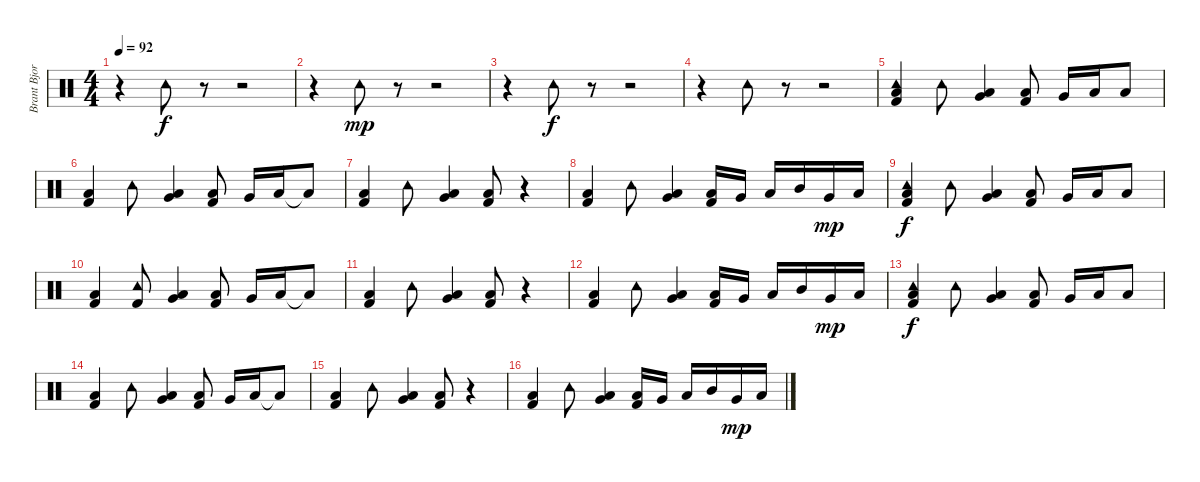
\track ("Brant Bjork - Drums" "Brant Bjor") {instrument percussion}
\staff {score}
\articulation defaults
\ts (4 4)
\tempo 92
\clef neutral
\ks c
r.4{dy mp} "Tambourine (hit)".8{dy f} r.8 r.2 |
r.4 "Tambourine (hit)".8{dy mp} r.8 r.2 |
r.4 "Tambourine (hit)".8{dy f} r.8 r.2 |
r.4 "Tambourine (hit)".8 r.8 r.2 |
("Tambourine (hit)" "Low Floor Tom (hit)" "Kick (hit) 2").4 "Tambourine (hit)".8 ("Low Floor Tom (hit)" "Very Low Tom (hit)").4 ("Low Floor Tom (hit)" "Kick (hit) 2").8 "Very Low Tom (hit)".16 "Low Floor Tom (hit)".16 "Low Floor Tom (hit)".8 |
("Low Floor Tom (hit)" "Kick (hit) 2").4 "Tambourine (hit)".8 ("Low Floor Tom (hit)" "Very Low Tom (hit)").4 ("Low Floor Tom (hit)" "Kick (hit) 2").8 "Very Low Tom (hit)".16 "Low Floor Tom (hit)".16 "Low Floor Tom (hit)"{t}.8 |
("Low Floor Tom (hit)" "Kick (hit) 2").4 "Tambourine (hit)".8 ("Low Floor Tom (hit)" "Very Low Tom (hit)").4 ("Low Floor Tom (hit)" "Kick (hit) 2").8 r.4 |
("Low Floor Tom (hit)" "Kick (hit) 2").4 "Tambourine (hit)".8 ("Low Floor Tom (hit)" "Very Low Tom (hit)").4 ("Low Floor Tom (hit)" "Kick (hit) 2").16 "Very Low Tom (hit)".16 "Low Tom (hit)".16 "Mid Tom (hit)".16 "Very Low Tom (hit)".16{dy mp} "Low Tom (hit)".16 |
("Tambourine (hit)" "Low Floor Tom (hit)" "Kick (hit) 2").4{dy f} "Tambourine (hit)".8 ("Low Floor Tom (hit)" "Very Low Tom (hit)").4 ("Low Floor Tom (hit)" "Kick (hit) 2").8 "Very Low Tom (hit)".16 "Low Floor Tom (hit)".16 "Low Floor Tom (hit)".8 |
("Low Floor Tom (hit)" "Kick (hit) 2").4 ("Tambourine (hit)" "Kick (hit) 2").8 ("Low Floor Tom (hit)" "Very Low Tom (hit)").4 ("Low Floor Tom (hit)" "Kick (hit) 2").8 "Very Low Tom (hit)".16 "Low Floor Tom (hit)".16 "Low Floor Tom (hit)"{t}.8 |
("Low Floor Tom (hit)" "Kick (hit) 2").4 "Tambourine (hit)".8 ("Low Floor Tom (hit)" "Very Low Tom (hit)").4 ("Low Floor Tom (hit)" "Kick (hit) 2").8 r.4 |
("Low Floor Tom (hit)" "Kick (hit) 2").4 "Tambourine (hit)".8 ("Low Floor Tom (hit)" "Very Low Tom (hit)").4 ("Low Floor Tom (hit)" "Kick (hit) 2").16 "Very Low Tom (hit)".16 "Low Tom (hit)".16 "Mid Tom (hit)".16 "Very Low Tom (hit)".16{dy mp} "Low Tom (hit)".16 |
("Tambourine (hit)" "Low Floor Tom (hit)" "Kick (hit) 2").4{dy f} "Tambourine (hit)".8 ("Low Floor Tom (hit)" "Very Low Tom (hit)").4 ("Low Floor Tom (hit)" "Kick (hit) 2").8 "Very Low Tom (hit)".16 "Low Floor Tom (hit)".16 "Low Floor Tom (hit)".8 |
("Low Floor Tom (hit)" "Kick (hit) 2").4 "Tambourine (hit)".8 ("Low Floor Tom (hit)" "Very Low Tom (hit)").4 ("Low Floor Tom (hit)" "Kick (hit) 2").8 "Very Low Tom (hit)".16 "Low Floor Tom (hit)".16 "Low Floor Tom (hit)"{t}.8 |
("Low Floor Tom (hit)" "Kick (hit) 2").4 "Tambourine (hit)".8 ("Low Floor Tom (hit)" "Very Low Tom (hit)").4 ("Low Floor Tom (hit)" "Kick (hit) 2").8 r.4 |
("Low Floor Tom (hit)" "Kick (hit) 2").4 "Tambourine (hit)".8 ("Low Floor Tom (hit)" "Very Low Tom (hit)").4 ("Low Floor Tom (hit)" "Kick (hit) 2").16 "Very Low Tom (hit)".16 "Low Tom (hit)".16 "Mid Tom (hit)".16 "Very Low Tom (hit)".16{dy mp} "Low Tom (hit)".16
